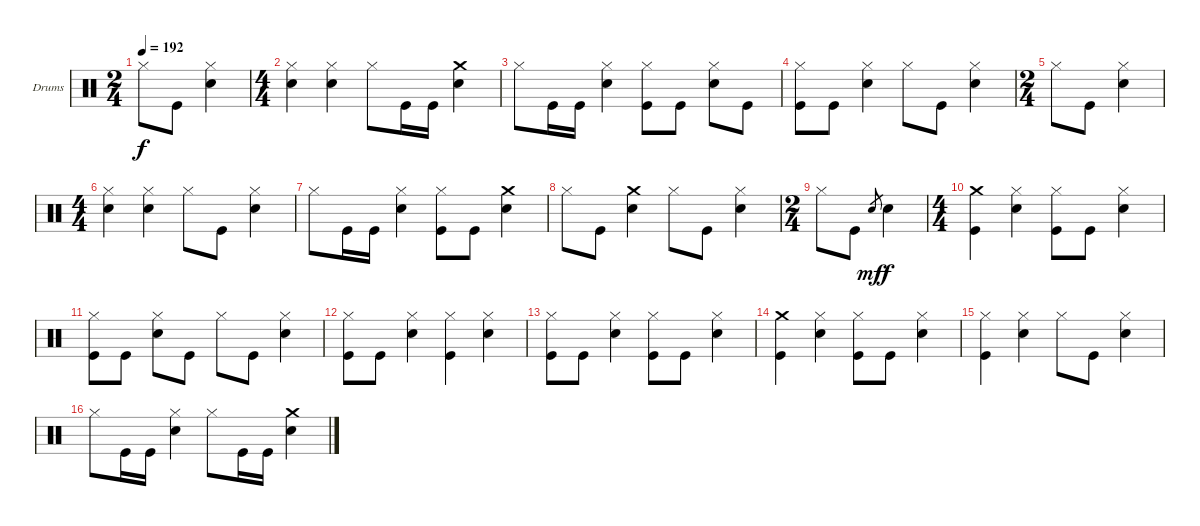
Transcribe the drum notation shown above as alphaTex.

\bracketExtendMode groupsimilarinstruments
\firstSystemTrackNameOrientation horizontal
\otherSystemsTrackNameOrientation horizontal
\track ("Lars Ulrich" "Drums") {instrument percussion}
\staff {score}
\articulation defaults
\ts (2 4)
\beaming (8 2 2)
\tempo 192
\clef neutral
\ks c "Hi-Hat (closed)".8{dy f} "Kick (hit)".8
("Hi-Hat (closed)" "Snare (hit) 2").4 |
\ts (4 4)
\beaming (8 2 2 2 2)
("Hi-Hat (closed)" "Snare (hit) 2").4 ("Hi-Hat (closed)" "Snare (hit) 2").4 "Hi-Hat (closed)".8 "Kick (hit)".16 "Kick (hit)".16 ("Crash medium (hit)" "Snare (hit) 2").4 |
"Hi-Hat (closed)".8 "Kick (hit)".16 "Kick (hit)".16 ("Hi-Hat (closed)" "Snare (hit) 2").4 ("Hi-Hat (closed)" "Kick (hit)").8 "Kick (hit)".8 ("Hi-Hat (closed)" "Snare (hit) 2").8 "Kick (hit)".8 |
("Hi-Hat (closed)" "Kick (hit)").8 "Kick (hit)".8 ("Hi-Hat (closed)" "Snare (hit) 2").4 "Hi-Hat (closed)".8 "Kick (hit)".8 ("Hi-Hat (closed)" "Snare (hit) 2").4 |
\ts (2 4)
\beaming (8 2 2)
"Hi-Hat (closed)".8 "Kick (hit)".8 ("Hi-Hat (closed)" "Snare (hit) 2").4 |
\ts (4 4)
\beaming (8 2 2 2 2)
("Hi-Hat (closed)" "Snare (hit) 2").4 ("Hi-Hat (closed)" "Snare (hit) 2").4 "Hi-Hat (closed)".8 "Kick (hit)".8 ("Hi-Hat (closed)" "Snare (hit) 2").4 |
"Hi-Hat (closed)".8 "Kick (hit)".16 "Kick (hit)".16 ("Hi-Hat (closed)" "Snare (hit) 2").4 ("Hi-Hat (closed)" "Kick (hit)").8 "Kick (hit)".8 ("Crash medium (hit)" "Snare (hit) 2").4 |
"Hi-Hat (closed)".8 "Kick (hit)".8 ("Crash medium (hit)" "Snare (hit) 2").4 "Hi-Hat (closed)".8 "Kick (hit)".8 ("Hi-Hat (closed)" "Snare (hit) 2").4 |
\ts (2 4)
\beaming (8 2 2)
"Hi-Hat (closed)".8 "Kick (hit)".8 "Snare (hit) 2".8{gr dy mf} "Snare (hit) 2".4{dy f} |
\ts (4 4)
\beaming (8 2 2 2 2)
("Crash medium (hit)" "Kick (hit)").4 ("Hi-Hat (closed)" "Snare (hit) 2").4 ("Hi-Hat (closed)" "Kick (hit)").8 "Kick (hit)".8 ("Hi-Hat (closed)" "Snare (hit) 2").4 |
("Hi-Hat (closed)" "Kick (hit)").8 "Kick (hit)".8 ("Hi-Hat (closed)" "Snare (hit) 2").8 "Kick (hit)".8 "Hi-Hat (closed)".8 "Kick (hit)".8 ("Hi-Hat (closed)" "Snare (hit) 2").4 |
("Hi-Hat (closed)" "Kick (hit)").8 "Kick (hit)".8 ("Hi-Hat (closed)" "Snare (hit) 2").4 ("Hi-Hat (closed)" "Kick (hit)").4 ("Hi-Hat (closed)" "Snare (hit) 2").4 |
("Hi-Hat (closed)" "Kick (hit)").8 "Kick (hit)".8 ("Hi-Hat (closed)" "Snare (hit) 2").4 ("Hi-Hat (closed)" "Kick (hit)").8 "Kick (hit)".8 ("Hi-Hat (closed)" "Snare (hit) 2").4 |
("Crash medium (hit)" "Kick (hit)").4 ("Hi-Hat (closed)" "Snare (hit) 2").4 ("Hi-Hat (closed)" "Kick (hit)").8 "Kick (hit)".8 ("Hi-Hat (closed)" "Snare (hit) 2").4 |
("Hi-Hat (closed)" "Kick (hit)").4 ("Hi-Hat (closed)" "Snare (hit) 2").4 "Hi-Hat (closed)".8 "Kick (hit)".8 ("Hi-Hat (closed)" "Snare (hit) 2").4 |
"Hi-Hat (closed)".8 "Kick (hit)".16 "Kick (hit)".16 ("Hi-Hat (closed)" "Snare (hit) 2").4 "Hi-Hat (closed)".8 "Kick (hit)".16 "Kick (hit)".16 ("Crash medium (hit)" "Snare (hit) 2").4
